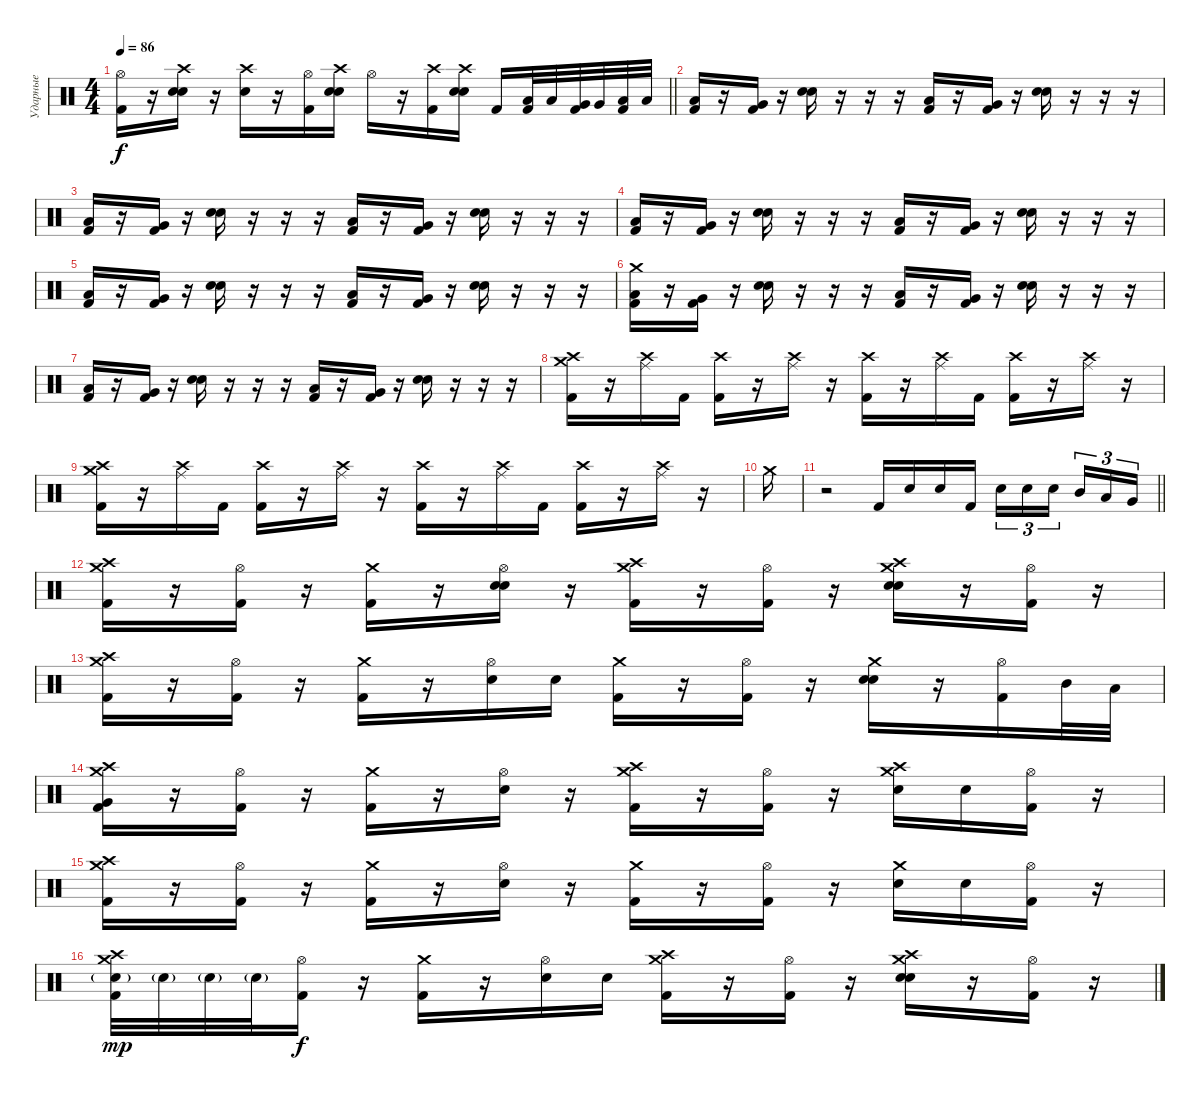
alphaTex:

\track ("Ударные" "Ударные") {instrument percussion}
\staff {score}
\articulation defaults
\ts (4 4)
\tempo 86
\clef neutral
\barLineRight lightlight
\ks c
("Hi-Hat (open)" "Kick (hit) 2").16{dy f} r.16 ("Crash high (hit)" "Snare (hit) 2" "Electric Snare (hit)").16 r.16 ("Crash high (hit)" "Electric Snare (hit)").16 r.16 ("Hi-Hat (open)" "Kick (hit) 2").16 ("Crash high (hit)" "Snare (hit) 2" "Electric Snare (hit)").16 "Hi-Hat (open)".16 r.16 ("Crash high (hit)" "Kick (hit) 2").16 ("Crash high (hit)" "Snare (hit) 2" "Electric Snare (hit)").16 "Kick (hit) 2".16 ("Low Tom (hit)" "Kick (hit) 2").32 "Low Tom (hit)".32 ("Very Low Tom (hit)" "Kick (hit) 2").32 "Very Low Tom (hit)".32 ("Low Floor Tom (hit)" "Kick (hit) 2").32 "Low Floor Tom (hit)".32 |
("Low Tom (hit)" "Kick (hit) 2").16 r.16 ("Very Low Tom (hit)" "Kick (hit) 2").16 r.16 ("Snare (hit) 2" "Electric Snare (hit)").16 r.16 r.16 r.16 ("Low Tom (hit)" "Kick (hit) 2").16 r.16 ("Very Low Tom (hit)" "Kick (hit) 2").16 r.16 ("Snare (hit) 2" "Electric Snare (hit)").16 r.16 r.16 r.16 |
("Low Tom (hit)" "Kick (hit) 2").16 r.16 ("Very Low Tom (hit)" "Kick (hit) 2").16 r.16 ("Snare (hit) 2" "Electric Snare (hit)").16 r.16 r.16 r.16 ("Low Tom (hit)" "Kick (hit) 2").16 r.16 ("Very Low Tom (hit)" "Kick (hit) 2").16 r.16 ("Snare (hit) 2" "Electric Snare (hit)").16 r.16 r.16 r.16 |
("Low Tom (hit)" "Kick (hit) 2").16 r.16 ("Very Low Tom (hit)" "Kick (hit) 2").16 r.16 ("Snare (hit) 2" "Electric Snare (hit)").16 r.16 r.16 r.16 ("Low Tom (hit)" "Kick (hit) 2").16 r.16 ("Very Low Tom (hit)" "Kick (hit) 2").16 r.16 ("Snare (hit) 2" "Electric Snare (hit)").16 r.16 r.16 r.16 |
("Low Tom (hit)" "Kick (hit) 2").16 r.16 ("Very Low Tom (hit)" "Kick (hit) 2").16 r.16 ("Snare (hit) 2" "Electric Snare (hit)").16 r.16 r.16 r.16 ("Low Tom (hit)" "Kick (hit) 2").16 r.16 ("Very Low Tom (hit)" "Kick (hit) 2").16 r.16 ("Snare (hit) 2" "Electric Snare (hit)").16 r.16 r.16 r.16 |
("Crash medium (hit)" "Low Tom (hit)" "Kick (hit) 2").16 r.16 ("Very Low Tom (hit)" "Kick (hit) 2").16 r.16 ("Snare (hit) 2" "Electric Snare (hit)").16 r.16 r.16 r.16 ("Low Tom (hit)" "Kick (hit) 2").16 r.16 ("Very Low Tom (hit)" "Kick (hit) 2").16 r.16 ("Snare (hit) 2" "Electric Snare (hit)").16 r.16 r.16 r.16 |
("Low Tom (hit)" "Kick (hit) 2").16 r.16 ("Very Low Tom (hit)" "Kick (hit) 2").16 r.16 ("Snare (hit) 2" "Electric Snare (hit)").16 r.16 r.16 r.16 ("Low Tom (hit)" "Kick (hit) 2").16 r.16 ("Very Low Tom (hit)" "Kick (hit) 2").16 r.16 ("Snare (hit) 2" "Electric Snare (hit)").16 r.16 r.16 r.16 |
("Crash medium (hit)" "Crash high (hit)" "Kick (hit) 2").16 r.16 ("Ride (middle)" "Crash high (hit)").16 "Kick (hit) 2".16 ("Crash high (hit)" "Kick (hit) 2").16 r.16 ("Ride (middle)" "Crash high (hit)").16 r.16 ("Crash high (hit)" "Kick (hit) 2").16 r.16 ("Ride (middle)" "Crash high (hit)").16 "Kick (hit) 2".16 ("Crash high (hit)" "Kick (hit) 2").16 r.16 ("Ride (middle)" "Crash high (hit)").16 r.16 |
("Crash medium (hit)" "Crash high (hit)" "Kick (hit) 2").16 r.16 ("Ride (middle)" "Crash high (hit)").16 "Kick (hit) 2".16 ("Crash high (hit)" "Kick (hit) 2").16 r.16 ("Ride (middle)" "Crash high (hit)").16 r.16 ("Crash high (hit)" "Kick (hit) 2").16 r.16 ("Ride (middle)" "Crash high (hit)").16 "Kick (hit) 2".16 ("Crash high (hit)" "Kick (hit) 2").16 r.16 ("Ride (middle)" "Crash high (hit)").16 r.16 |
"Crash medium (hit)".16 |
\barLineRight lightlight
r.2 "Kick (hit) 2".16 "Electric Snare (hit)".16 "Electric Snare (hit)".16 "Kick (hit) 2".16 "Electric Snare (hit)".16{tu (3 2)} "Electric Snare (hit)".16{tu (3 2)} "Electric Snare (hit)".16{tu (3 2) beam splitsecondary} "Mid Tom (hit)".16{tu (3 2)} "Low Tom (hit)".16{tu (3 2)} "Very Low Tom (hit)".16{tu (3 2)} |
\section ("" "")
("Crash medium (hit)" "Crash high (hit)" "Kick (hit) 2").16 r.16 ("Hi-Hat (open)" "Kick (hit) 2").16 r.16 ("Crash medium (hit)" "Kick (hit) 2").16 r.16 ("Hi-Hat (open)" "Snare (hit) 2" "Electric Snare (hit)").16 r.16 ("Crash medium (hit)" "Crash high (hit)" "Kick (hit) 2").16 r.16 ("Hi-Hat (open)" "Kick (hit) 2").16 r.16 ("Crash medium (hit)" "Crash high (hit)" "Snare (hit) 2" "Electric Snare (hit)").16 r.16 ("Hi-Hat (open)" "Kick (hit) 2").16 r.16 |
("Crash medium (hit)" "Crash high (hit)" "Kick (hit) 2").16 r.16 ("Hi-Hat (open)" "Kick (hit) 2").16 r.16 ("Crash medium (hit)" "Kick (hit) 2").16 r.16 ("Hi-Hat (open)" "Electric Snare (hit)").16 "Snare (hit) 2".16 ("Crash medium (hit)" "Kick (hit) 2").16 r.16 ("Hi-Hat (open)" "Kick (hit) 2").16 r.16 ("Crash medium (hit)" "Snare (hit) 2" "Electric Snare (hit)").16 r.16 ("Hi-Hat (open)" "Kick (hit) 2").16 "Mid Tom (hit)".32 "Low Tom (hit)".32 |
("Crash medium (hit)" "Crash high (hit)" "Very Low Tom (hit)" "Kick (hit) 2").16 r.16 ("Hi-Hat (open)" "Kick (hit) 2").16 r.16 ("Crash medium (hit)" "Kick (hit) 2").16 r.16 ("Hi-Hat (open)" "Electric Snare (hit)").16 r.16 ("Crash medium (hit)" "Crash high (hit)" "Kick (hit) 2").16 r.16 ("Hi-Hat (open)" "Kick (hit) 2").16 r.16 ("Crash medium (hit)" "Crash high (hit)" "Electric Snare (hit)").16 "Snare (hit) 2".16 ("Hi-Hat (open)" "Kick (hit) 2").16 r.16 |
("Crash medium (hit)" "Crash high (hit)" "Kick (hit) 2").16 r.16 ("Hi-Hat (open)" "Kick (hit) 2").16 r.16 ("Crash medium (hit)" "Kick (hit) 2").16 r.16 ("Hi-Hat (open)" "Electric Snare (hit)").16 r.16 ("Crash medium (hit)" "Kick (hit) 2").16 r.16 ("Hi-Hat (open)" "Kick (hit) 2").16 r.16 ("Crash medium (hit)" "Electric Snare (hit)").16 "Snare (hit) 2".16 ("Hi-Hat (open)" "Kick (hit) 2").16 r.16 |
("Crash medium (hit)" "Crash high (hit)" "Electric Snare (hit)"{g} "Kick (hit) 2").32{dy mp} "Electric Snare (hit)"{g}.32 "Electric Snare (hit)"{g}.32 "Electric Snare (hit)"{g}.32 ("Hi-Hat (open)" "Kick (hit) 2").16{dy f} r.16 ("Crash medium (hit)" "Kick (hit) 2").16 r.16 ("Hi-Hat (open)" "Electric Snare (hit)").16 "Snare (hit) 2".16 ("Crash medium (hit)" "Crash high (hit)" "Kick (hit) 2").16 r.16 ("Hi-Hat (open)" "Kick (hit) 2").16 r.16 ("Crash medium (hit)" "Crash high (hit)" "Snare (hit) 2" "Electric Snare (hit)").16 r.16 ("Hi-Hat (open)" "Kick (hit) 2").16 r.16
